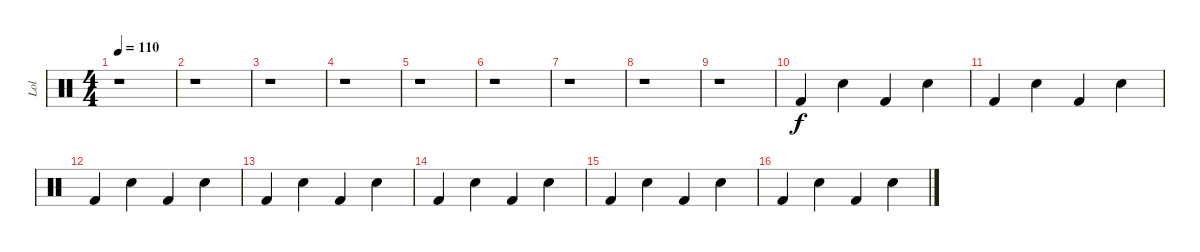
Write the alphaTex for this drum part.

\track ("Lol" "Lol") {instrument percussion}
\staff {score}
\articulation defaults
\ts (4 4)
\tempo 110
\clef neutral
\ks c
r.1{dy f} |
r.1 |
r.1 |
r.1 |
r.1 |
r.1 |
r.1 |
r.1 |
r.1 |
"Kick (hit) 2".4 "Electric Snare (hit)".4 "Kick (hit) 2".4 "Electric Snare (hit)".4 |
"Kick (hit) 2".4 "Electric Snare (hit)".4 "Kick (hit) 2".4 "Electric Snare (hit)".4 |
"Kick (hit) 2".4 "Electric Snare (hit)".4 "Kick (hit) 2".4 "Electric Snare (hit)".4 |
"Kick (hit) 2".4 "Electric Snare (hit)".4 "Kick (hit) 2".4 "Electric Snare (hit)".4 |
"Kick (hit) 2".4 "Electric Snare (hit)".4 "Kick (hit) 2".4 "Electric Snare (hit)".4 |
"Kick (hit) 2".4 "Electric Snare (hit)".4 "Kick (hit) 2".4 "Electric Snare (hit)".4 |
"Kick (hit) 2".4 "Electric Snare (hit)".4 "Kick (hit) 2".4 "Electric Snare (hit)".4
